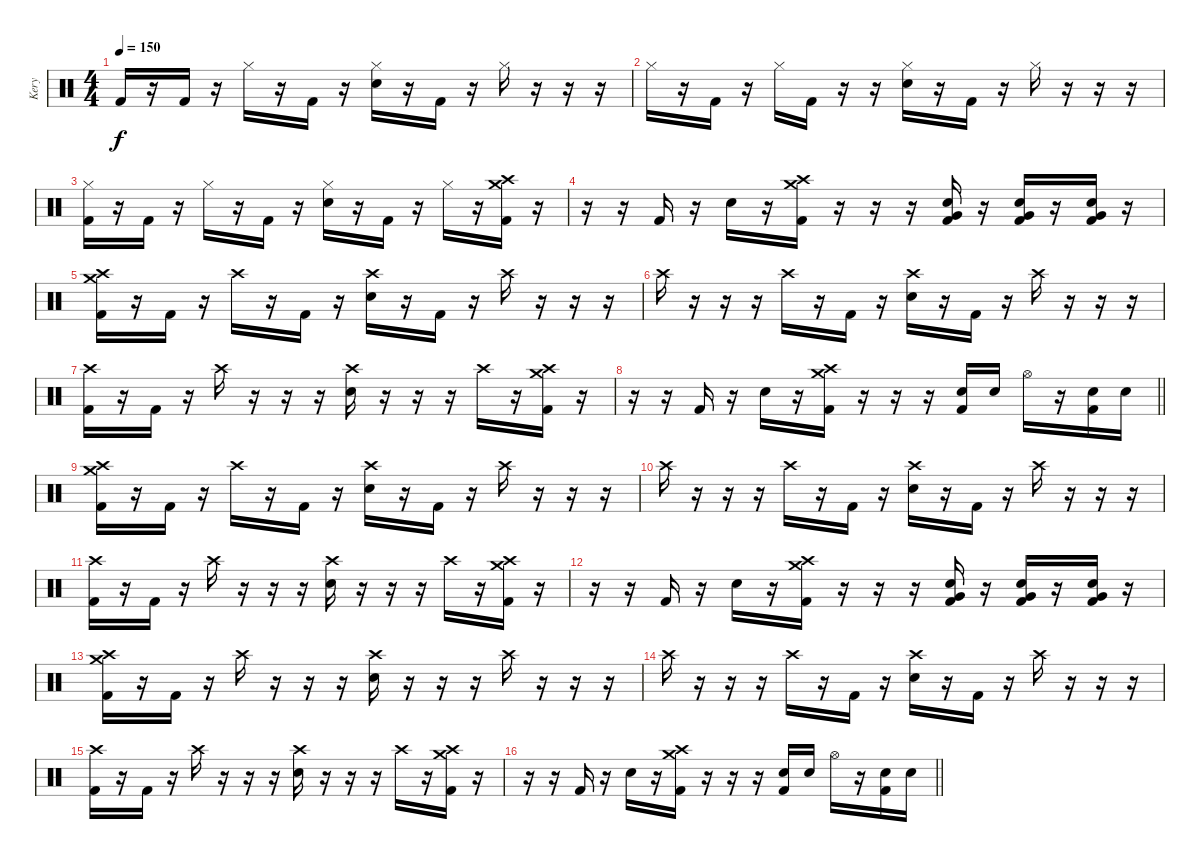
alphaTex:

\track ("Kery" "Kery") {instrument percussion}
\staff {score}
\articulation defaults
\ts (4 4)
\tempo 150
\clef neutral
\ks c "Kick (hit) 2".16{dy f}
r.16 "Kick (hit) 2".16 r.16 "Hi-Hat (closed)".16 r.16 "Kick (hit) 2".16 r.16 ("Hi-Hat (closed)" "Electric Snare (hit)").16 r.16 "Kick (hit) 2".16 r.16 "Hi-Hat (closed)".16 r.16 r.16 r.16 |
"Hi-Hat (closed)".16 r.16 "Kick (hit) 2".16 r.16 "Hi-Hat (closed)".16 "Kick (hit) 2".16 r.16 r.16 ("Hi-Hat (closed)" "Electric Snare (hit)").16 r.16 "Kick (hit) 2".16 r.16 "Hi-Hat (closed)".16 r.16 r.16 r.16 |
("Hi-Hat (closed)" "Kick (hit) 2").16 r.16 "Kick (hit) 2".16 r.16 "Hi-Hat (closed)".16 r.16 "Kick (hit) 2".16 r.16 ("Hi-Hat (closed)" "Electric Snare (hit)").16 r.16 "Kick (hit) 2".16 r.16 "Hi-Hat (closed)".16 r.16 ("Crash high (hit)" "Crash medium (hit)" "Kick (hit) 2").16 r.16 |
r.16 r.16 "Kick (hit) 2".16 r.16 "Electric Snare (hit)".16 r.16 ("Crash medium (hit)" "Crash high (hit)" "Kick (hit) 2").16 r.16 r.16 r.16 ("Very Low Tom (hit)" "Electric Snare (hit)" "Kick (hit) 2").16 r.16 ("Very Low Tom (hit)" "Electric Snare (hit)" "Kick (hit) 2").16 r.16 ("Very Low Tom (hit)" "Electric Snare (hit)" "Kick (hit) 2").16 r.16 |
("Crash medium (hit)" "Crash high (hit)" "Kick (hit) 2").16 r.16 "Kick (hit) 2".16 r.16 "Crash high (hit)".16 r.16 "Kick (hit) 2".16 r.16 ("Crash high (hit)" "Electric Snare (hit)").16 r.16 "Kick (hit) 2".16 r.16 "Crash high (hit)".16 r.16 r.16 r.16 |
"Crash high (hit)".16 r.16 r.16 r.16 "Crash high (hit)".16 r.16 "Kick (hit) 2".16 r.16 ("Crash high (hit)" "Electric Snare (hit)").16 r.16 "Kick (hit) 2".16 r.16 "Crash high (hit)".16 r.16 r.16 r.16 |
("Crash high (hit)" "Kick (hit) 2").16 r.16 "Kick (hit) 2".16 r.16 "Crash high (hit)".16 r.16 r.16 r.16 ("Crash high (hit)" "Electric Snare (hit)").16 r.16 r.16 r.16 "Crash high (hit)".16 r.16 ("Crash high (hit)" "Crash medium (hit)" "Kick (hit) 2").16 r.16 |
\barLineRight lightlight
r.16 r.16 "Kick (hit) 2".16 r.16 "Electric Snare (hit)".16 r.16 ("Crash medium (hit)" "Crash high (hit)" "Kick (hit) 2").16 r.16 r.16 r.16 ("Electric Snare (hit)" "Kick (hit) 2").16 "Electric Snare (hit)".16 "Hi-Hat (open)".16 r.16 ("Electric Snare (hit)" "Kick (hit) 2").16 "Electric Snare (hit)".16 |
("Crash medium (hit)" "Crash high (hit)" "Kick (hit) 2").16 r.16 "Kick (hit) 2".16 r.16 "Crash high (hit)".16 r.16 "Kick (hit) 2".16 r.16 ("Crash high (hit)" "Electric Snare (hit)").16 r.16 "Kick (hit) 2".16 r.16 "Crash high (hit)".16 r.16 r.16 r.16 |
"Crash high (hit)".16 r.16 r.16 r.16 "Crash high (hit)".16 r.16 "Kick (hit) 2".16 r.16 ("Crash high (hit)" "Electric Snare (hit)").16 r.16 "Kick (hit) 2".16 r.16 "Crash high (hit)".16 r.16 r.16 r.16 |
("Crash high (hit)" "Kick (hit) 2").16 r.16 "Kick (hit) 2".16 r.16 "Crash high (hit)".16 r.16 r.16 r.16 ("Crash high (hit)" "Electric Snare (hit)").16 r.16 r.16 r.16 "Crash high (hit)".16 r.16 ("Crash high (hit)" "Crash medium (hit)" "Kick (hit) 2").16 r.16 |
r.16 r.16 "Kick (hit) 2".16 r.16 "Electric Snare (hit)".16 r.16 ("Crash medium (hit)" "Crash high (hit)" "Kick (hit) 2").16 r.16 r.16 r.16 ("Very Low Tom (hit)" "Electric Snare (hit)" "Kick (hit) 2").16 r.16 ("Very Low Tom (hit)" "Electric Snare (hit)" "Kick (hit) 2").16 r.16 ("Very Low Tom (hit)" "Electric Snare (hit)" "Kick (hit) 2").16 r.16 |
("Crash medium (hit)" "Crash high (hit)" "Kick (hit) 2").16 r.16 "Kick (hit) 2".16 r.16 "Crash high (hit)".16 r.16 r.16 r.16 ("Crash high (hit)" "Electric Snare (hit)").16 r.16 r.16 r.16 "Crash high (hit)".16 r.16 r.16 r.16 |
"Crash high (hit)".16 r.16 r.16 r.16 "Crash high (hit)".16 r.16 "Kick (hit) 2".16 r.16 ("Crash high (hit)" "Electric Snare (hit)").16 r.16 "Kick (hit) 2".16 r.16 "Crash high (hit)".16 r.16 r.16 r.16 |
("Crash high (hit)" "Kick (hit) 2").16 r.16 "Kick (hit) 2".16 r.16 "Crash high (hit)".16 r.16 r.16 r.16 ("Crash high (hit)" "Electric Snare (hit)").16 r.16 r.16 r.16 "Crash high (hit)".16 r.16 ("Crash high (hit)" "Crash medium (hit)" "Kick (hit) 2").16 r.16 |
\barLineRight lightlight
r.16 r.16 "Kick (hit) 2".16 r.16 "Electric Snare (hit)".16 r.16 ("Crash medium (hit)" "Crash high (hit)" "Kick (hit) 2").16 r.16 r.16 r.16 ("Electric Snare (hit)" "Kick (hit) 2").16 "Electric Snare (hit)".16 "Hi-Hat (open)".16 r.16 ("Electric Snare (hit)" "Kick (hit) 2").16 "Electric Snare (hit)".16
